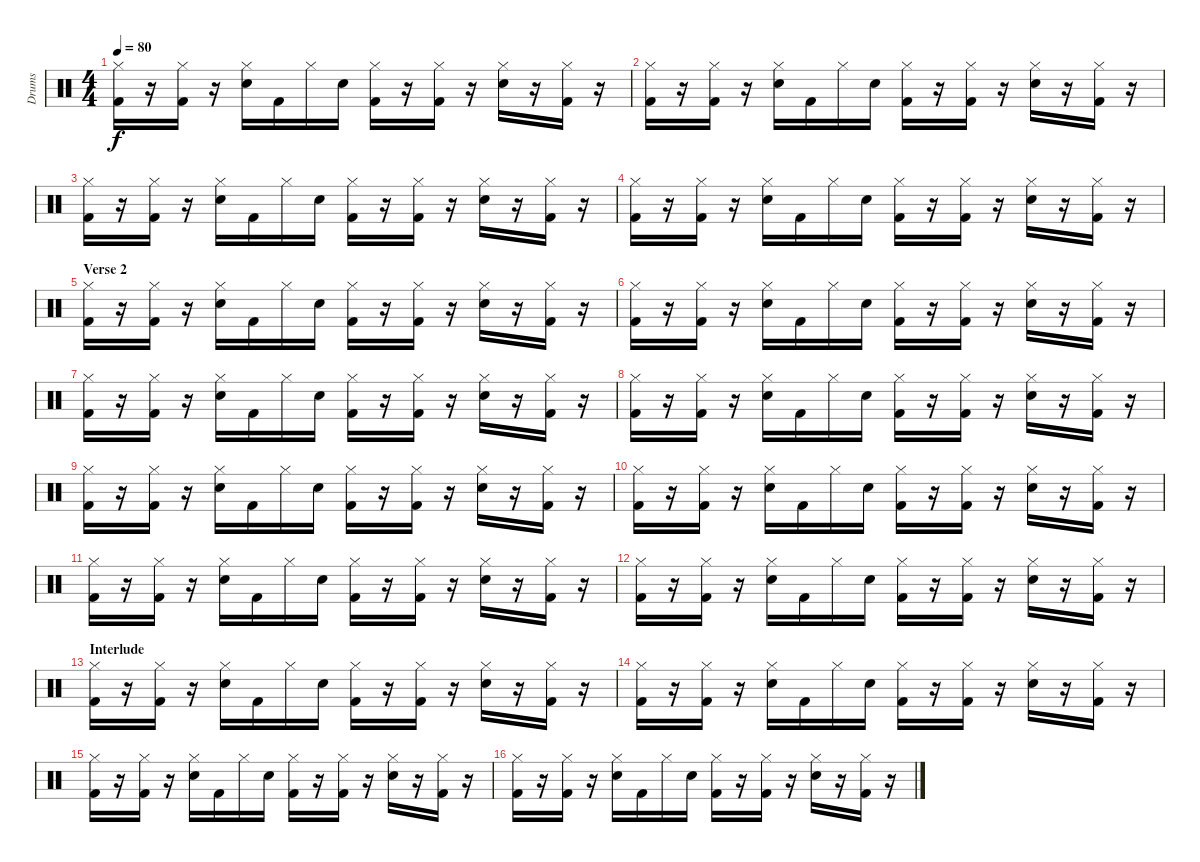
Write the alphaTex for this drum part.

\track ("Drums" "Drums") {instrument percussion}
\staff {score}
\articulation defaults
\ts (4 4)
\tempo 80
\clef neutral
\ks c
("Kick (hit) 2" "Hi-Hat (closed)").16{dy f} r.16 ("Kick (hit) 2" "Hi-Hat (closed)").16 r.16 ("Snare (hit) 2" "Hi-Hat (closed)").16 "Kick (hit) 2".16 "Hi-Hat (closed)".16 "Snare (hit) 2".16 ("Kick (hit) 2" "Hi-Hat (closed)").16 r.16 ("Kick (hit) 2" "Hi-Hat (closed)").16 r.16 ("Snare (hit) 2" "Hi-Hat (closed)").16 r.16 ("Kick (hit) 2" "Hi-Hat (closed)").16 r.16 |
("Kick (hit) 2" "Hi-Hat (closed)").16 r.16 ("Kick (hit) 2" "Hi-Hat (closed)").16 r.16 ("Snare (hit) 2" "Hi-Hat (closed)").16 "Kick (hit) 2".16 "Hi-Hat (closed)".16 "Snare (hit) 2".16 ("Kick (hit) 2" "Hi-Hat (closed)").16 r.16 ("Kick (hit) 2" "Hi-Hat (closed)").16 r.16 ("Snare (hit) 2" "Hi-Hat (closed)").16 r.16 ("Kick (hit) 2" "Hi-Hat (closed)").16 r.16 |
("Kick (hit) 2" "Hi-Hat (closed)").16 r.16 ("Kick (hit) 2" "Hi-Hat (closed)").16 r.16 ("Snare (hit) 2" "Hi-Hat (closed)").16 "Kick (hit) 2".16 "Hi-Hat (closed)".16 "Snare (hit) 2".16 ("Kick (hit) 2" "Hi-Hat (closed)").16 r.16 ("Kick (hit) 2" "Hi-Hat (closed)").16 r.16 ("Snare (hit) 2" "Hi-Hat (closed)").16 r.16 ("Kick (hit) 2" "Hi-Hat (closed)").16 r.16 |
("Kick (hit) 2" "Hi-Hat (closed)").16 r.16 ("Kick (hit) 2" "Hi-Hat (closed)").16 r.16 ("Snare (hit) 2" "Hi-Hat (closed)").16 "Kick (hit) 2".16 "Hi-Hat (closed)".16 "Snare (hit) 2".16 ("Kick (hit) 2" "Hi-Hat (closed)").16 r.16 ("Kick (hit) 2" "Hi-Hat (closed)").16 r.16 ("Snare (hit) 2" "Hi-Hat (closed)").16 r.16 ("Kick (hit) 2" "Hi-Hat (closed)").16 r.16 |
\section ("" "Verse 2")
("Kick (hit) 2" "Hi-Hat (closed)").16 r.16 ("Kick (hit) 2" "Hi-Hat (closed)").16 r.16 ("Snare (hit) 2" "Hi-Hat (closed)").16 "Kick (hit) 2".16 "Hi-Hat (closed)".16 "Snare (hit) 2".16 ("Kick (hit) 2" "Hi-Hat (closed)").16 r.16 ("Kick (hit) 2" "Hi-Hat (closed)").16 r.16 ("Snare (hit) 2" "Hi-Hat (closed)").16 r.16 ("Kick (hit) 2" "Hi-Hat (closed)").16 r.16 |
("Kick (hit) 2" "Hi-Hat (closed)").16 r.16 ("Kick (hit) 2" "Hi-Hat (closed)").16 r.16 ("Snare (hit) 2" "Hi-Hat (closed)").16 "Kick (hit) 2".16 "Hi-Hat (closed)".16 "Snare (hit) 2".16 ("Kick (hit) 2" "Hi-Hat (closed)").16 r.16 ("Kick (hit) 2" "Hi-Hat (closed)").16 r.16 ("Snare (hit) 2" "Hi-Hat (closed)").16 r.16 ("Kick (hit) 2" "Hi-Hat (closed)").16 r.16 |
("Kick (hit) 2" "Hi-Hat (closed)").16 r.16 ("Kick (hit) 2" "Hi-Hat (closed)").16 r.16 ("Snare (hit) 2" "Hi-Hat (closed)").16 "Kick (hit) 2".16 "Hi-Hat (closed)".16 "Snare (hit) 2".16 ("Kick (hit) 2" "Hi-Hat (closed)").16 r.16 ("Kick (hit) 2" "Hi-Hat (closed)").16 r.16 ("Snare (hit) 2" "Hi-Hat (closed)").16 r.16 ("Kick (hit) 2" "Hi-Hat (closed)").16 r.16 |
("Kick (hit) 2" "Hi-Hat (closed)").16 r.16 ("Kick (hit) 2" "Hi-Hat (closed)").16 r.16 ("Snare (hit) 2" "Hi-Hat (closed)").16 "Kick (hit) 2".16 "Hi-Hat (closed)".16 "Snare (hit) 2".16 ("Kick (hit) 2" "Hi-Hat (closed)").16 r.16 ("Kick (hit) 2" "Hi-Hat (closed)").16 r.16 ("Snare (hit) 2" "Hi-Hat (closed)").16 r.16 ("Kick (hit) 2" "Hi-Hat (closed)").16 r.16 |
("Kick (hit) 2" "Hi-Hat (closed)").16 r.16 ("Kick (hit) 2" "Hi-Hat (closed)").16 r.16 ("Snare (hit) 2" "Hi-Hat (closed)").16 "Kick (hit) 2".16 "Hi-Hat (closed)".16 "Snare (hit) 2".16 ("Kick (hit) 2" "Hi-Hat (closed)").16 r.16 ("Kick (hit) 2" "Hi-Hat (closed)").16 r.16 ("Snare (hit) 2" "Hi-Hat (closed)").16 r.16 ("Kick (hit) 2" "Hi-Hat (closed)").16 r.16 |
("Kick (hit) 2" "Hi-Hat (closed)").16 r.16 ("Kick (hit) 2" "Hi-Hat (closed)").16 r.16 ("Snare (hit) 2" "Hi-Hat (closed)").16 "Kick (hit) 2".16 "Hi-Hat (closed)".16 "Snare (hit) 2".16 ("Kick (hit) 2" "Hi-Hat (closed)").16 r.16 ("Kick (hit) 2" "Hi-Hat (closed)").16 r.16 ("Snare (hit) 2" "Hi-Hat (closed)").16 r.16 ("Kick (hit) 2" "Hi-Hat (closed)").16 r.16 |
("Kick (hit) 2" "Hi-Hat (closed)").16 r.16 ("Kick (hit) 2" "Hi-Hat (closed)").16 r.16 ("Snare (hit) 2" "Hi-Hat (closed)").16 "Kick (hit) 2".16 "Hi-Hat (closed)".16 "Snare (hit) 2".16 ("Kick (hit) 2" "Hi-Hat (closed)").16 r.16 ("Kick (hit) 2" "Hi-Hat (closed)").16 r.16 ("Snare (hit) 2" "Hi-Hat (closed)").16 r.16 ("Kick (hit) 2" "Hi-Hat (closed)").16 r.16 |
("Kick (hit) 2" "Hi-Hat (closed)").16 r.16 ("Kick (hit) 2" "Hi-Hat (closed)").16 r.16 ("Snare (hit) 2" "Hi-Hat (closed)").16 "Kick (hit) 2".16 "Hi-Hat (closed)".16 "Snare (hit) 2".16 ("Kick (hit) 2" "Hi-Hat (closed)").16 r.16 ("Kick (hit) 2" "Hi-Hat (closed)").16 r.16 ("Snare (hit) 2" "Hi-Hat (closed)").16 r.16 ("Kick (hit) 2" "Hi-Hat (closed)").16 r.16 |
\section ("" "Interlude")
("Kick (hit) 2" "Hi-Hat (closed)").16 r.16 ("Kick (hit) 2" "Hi-Hat (closed)").16 r.16 ("Snare (hit) 2" "Hi-Hat (closed)").16 "Kick (hit) 2".16 "Hi-Hat (closed)".16 "Snare (hit) 2".16 ("Kick (hit) 2" "Hi-Hat (closed)").16 r.16 ("Kick (hit) 2" "Hi-Hat (closed)").16 r.16 ("Snare (hit) 2" "Hi-Hat (closed)").16 r.16 ("Kick (hit) 2" "Hi-Hat (closed)").16 r.16 |
("Kick (hit) 2" "Hi-Hat (closed)").16 r.16 ("Kick (hit) 2" "Hi-Hat (closed)").16 r.16 ("Snare (hit) 2" "Hi-Hat (closed)").16 "Kick (hit) 2".16 "Hi-Hat (closed)".16 "Snare (hit) 2".16 ("Kick (hit) 2" "Hi-Hat (closed)").16 r.16 ("Kick (hit) 2" "Hi-Hat (closed)").16 r.16 ("Snare (hit) 2" "Hi-Hat (closed)").16 r.16 ("Kick (hit) 2" "Hi-Hat (closed)").16 r.16 |
("Kick (hit) 2" "Hi-Hat (closed)").16 r.16 ("Kick (hit) 2" "Hi-Hat (closed)").16 r.16 ("Snare (hit) 2" "Hi-Hat (closed)").16 "Kick (hit) 2".16 "Hi-Hat (closed)".16 "Snare (hit) 2".16 ("Kick (hit) 2" "Hi-Hat (closed)").16 r.16 ("Kick (hit) 2" "Hi-Hat (closed)").16 r.16 ("Snare (hit) 2" "Hi-Hat (closed)").16 r.16 ("Kick (hit) 2" "Hi-Hat (closed)").16 r.16 |
("Kick (hit) 2" "Hi-Hat (closed)").16 r.16 ("Kick (hit) 2" "Hi-Hat (closed)").16 r.16 ("Snare (hit) 2" "Hi-Hat (closed)").16 "Kick (hit) 2".16 "Hi-Hat (closed)".16 "Snare (hit) 2".16 ("Kick (hit) 2" "Hi-Hat (closed)").16 r.16 ("Kick (hit) 2" "Hi-Hat (closed)").16 r.16 ("Snare (hit) 2" "Hi-Hat (closed)").16 r.16 ("Kick (hit) 2" "Hi-Hat (closed)").16 r.16
